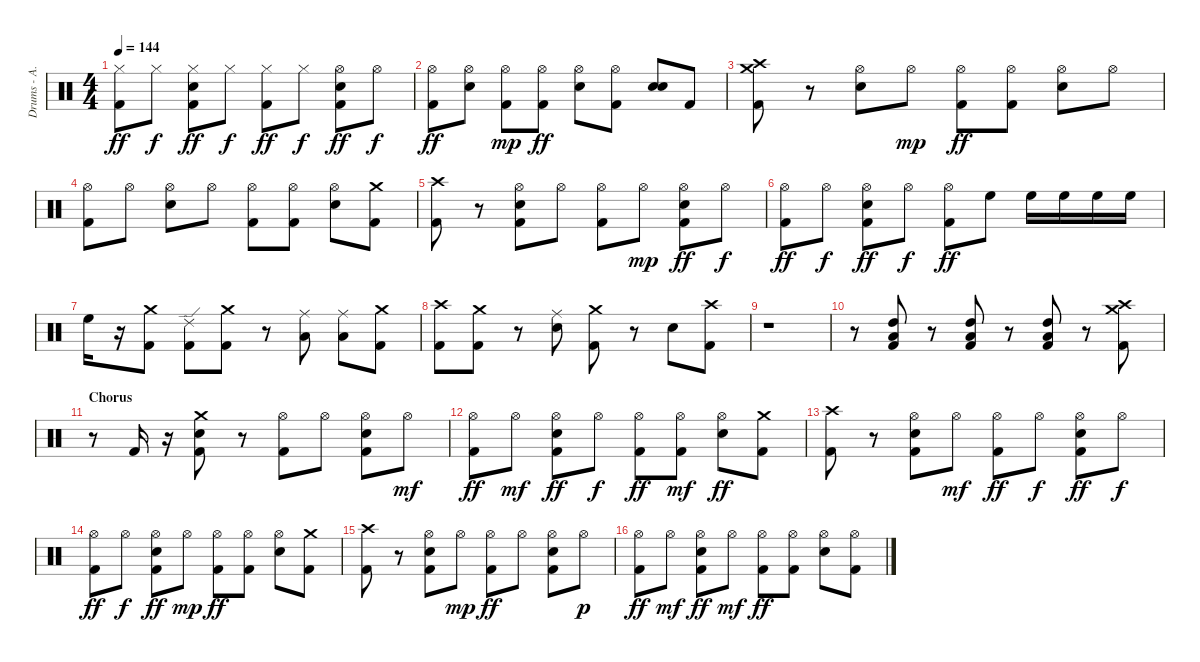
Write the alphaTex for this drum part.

\track ("Drums - A. Van Halen" "Drums - A.") {instrument percussion}
\staff {score}
\articulation defaults
\ts (4 4)
\tempo 144
\clef neutral
\ks c
("Kick (hit) 2" "Hi-Hat (closed)").8{dy ff} "Hi-Hat (closed)".8{dy f} ("Kick (hit) 2" "Hi-Hat (closed)" "Electric Snare (hit)").8{dy ff} "Hi-Hat (closed)".8{dy f} ("Kick (hit) 2" "Hi-Hat (closed)").8{dy ff} "Hi-Hat (closed)".8{dy f} ("Kick (hit) 2" "Hi-Hat (open)" "Electric Snare (hit)").8{dy ff} "Hi-Hat (open)".8{dy f} |
("Kick (hit) 2" "Hi-Hat (open)").8{dy ff} ("Electric Snare (hit)" "Hi-Hat (open)").8 ("Kick (hit) 2" "Hi-Hat (open)").8{dy mp} ("Hi-Hat (open)" "Kick (hit) 2").8{dy ff} ("Electric Snare (hit)" "Hi-Hat (open)").8 ("Kick (hit) 2" "Hi-Hat (open)").8 ("Electric Snare (hit)" "Electric Snare (hit)").8 "Kick (hit) 2".8 |
("Crash medium (hit)" "Kick (hit) 2" "Crash high (hit)").8 r.8 ("Electric Snare (hit)" "Hi-Hat (open)").8 "Hi-Hat (open)".8{dy mp} ("Hi-Hat (open)" "Kick (hit) 2").8{dy ff} ("Hi-Hat (open)" "Kick (hit) 2").8 ("Electric Snare (hit)" "Hi-Hat (open)").8 "Hi-Hat (open)".8 |
("Hi-Hat (open)" "Kick (hit) 2").8 "Hi-Hat (open)".8 ("Electric Snare (hit)" "Hi-Hat (open)").8 "Hi-Hat (open)".8 ("Kick (hit) 2" "Hi-Hat (open)").8 ("Hi-Hat (open)" "Kick (hit) 2").8 ("Electric Snare (hit)" "Hi-Hat (open)").8 ("Kick (hit) 2" "Crash medium (hit)").8 |
("Crash high (hit)" "Kick (hit) 2").8 r.8 ("Hi-Hat (open)" "Electric Snare (hit)" "Kick (hit) 2").8 "Hi-Hat (open)".8 ("Hi-Hat (open)" "Kick (hit) 2").8 "Hi-Hat (open)".8{dy mp} ("Electric Snare (hit)" "Hi-Hat (open)" "Kick (hit) 2").8{dy ff} "Hi-Hat (open)".8{dy f} |
("Kick (hit) 2" "Hi-Hat (open)").8{dy ff} "Hi-Hat (open)".8{dy f} ("Electric Snare (hit)" "Hi-Hat (open)" "Kick (hit) 2").8{dy ff} "Hi-Hat (open)".8{dy f} ("Hi-Hat (open)" "Kick (hit) 2").8{dy ff} "High Floor Tom (hit)".8 "High Floor Tom (hit)".16 "High Floor Tom (hit)".16 "High Floor Tom (hit)".16 "High Floor Tom (hit)".16 |
"High Floor Tom (hit)".16 r.16 ("Kick (hit) 2" "Crash medium (hit)").8 ("Ride (edge) 2" "Kick (hit) 2").8 ("Crash medium (hit)" "Kick (hit) 2").8 r.8 ("Ride (middle)" "Low Floor Tom (hit)").8 ("Ride (middle)" "Low Floor Tom (hit)").8 ("Kick (hit) 2" "Crash medium (hit)").8 |
("Crash high (hit)" "Kick (hit) 2").8 ("Crash medium (hit)" "Kick (hit) 2").8 r.8 ("Ride (middle)" "Electric Snare (hit)").8 ("Crash medium (hit)" "Kick (hit) 2").8 r.8 "Electric Snare (hit)".8 ("Kick (hit) 2" "Crash high (hit)").8 |
r.1 |
r.8 ("High Tom (hit)" "Low Floor Tom (hit)" "Kick (hit) 2").8 r.8 ("High Tom (hit)" "Low Floor Tom (hit)" "Kick (hit) 2").8 r.8 ("Kick (hit) 2" "High Tom (hit)" "Low Floor Tom (hit)").8 r.8 ("Kick (hit) 2" "Crash high (hit)" "Crash medium (hit)").8 |
\section ("" "Chorus")
r.8 "Kick (hit) 2".16 r.16 ("Crash medium (hit)" "Electric Snare (hit)" "Kick (hit) 2").8 r.8 ("Hi-Hat (open)" "Kick (hit) 2").8 "Hi-Hat (open)".8 ("Electric Snare (hit)" "Hi-Hat (open)" "Kick (hit) 2").8 "Hi-Hat (open)".8{dy mf} |
("Hi-Hat (open)" "Kick (hit) 2").8{dy ff} "Hi-Hat (open)".8{dy mf} ("Kick (hit) 2" "Electric Snare (hit)" "Hi-Hat (open)").8{dy ff} "Hi-Hat (open)".8{dy f} ("Kick (hit) 2" "Hi-Hat (open)").8{dy ff} ("Kick (hit) 2" "Hi-Hat (open)").8{dy mf} ("Electric Snare (hit)" "Hi-Hat (open)").8{dy ff} ("Kick (hit) 2" "Crash medium (hit)").8 |
("Kick (hit) 2" "Crash high (hit)").8 r.8 ("Electric Snare (hit)" "Hi-Hat (open)" "Kick (hit) 2").8 "Hi-Hat (open)".8{dy mf} ("Kick (hit) 2" "Hi-Hat (open)").8{dy ff} "Hi-Hat (open)".8{dy f} ("Electric Snare (hit)" "Kick (hit) 2" "Hi-Hat (open)").8{dy ff} "Hi-Hat (open)".8{dy f} |
("Kick (hit) 2" "Hi-Hat (open)").8{dy ff} "Hi-Hat (open)".8{dy f} ("Hi-Hat (open)" "Kick (hit) 2" "Electric Snare (hit)").8{dy ff} "Hi-Hat (open)".8{dy mp} ("Kick (hit) 2" "Hi-Hat (open)").8{dy ff} ("Hi-Hat (open)" "Kick (hit) 2").8 ("Hi-Hat (open)" "Electric Snare (hit)").8 ("Kick (hit) 2" "Crash medium (hit)").8 |
("Kick (hit) 2" "Crash high (hit)").8 r.8 ("Hi-Hat (open)" "Electric Snare (hit)" "Kick (hit) 2").8 "Hi-Hat (open)".8{dy mp} ("Hi-Hat (open)" "Kick (hit) 2").8{dy ff} "Hi-Hat (open)".8 ("Hi-Hat (open)" "Electric Snare (hit)" "Kick (hit) 2").8 "Hi-Hat (open)".8{dy p} |
("Hi-Hat (open)" "Kick (hit) 2").8{dy ff} "Hi-Hat (open)".8{dy mf} ("Kick (hit) 2" "Electric Snare (hit)" "Hi-Hat (open)").8{dy ff} "Hi-Hat (open)".8{dy mf} ("Kick (hit) 2" "Hi-Hat (open)").8{dy ff} ("Hi-Hat (open)" "Kick (hit) 2").8 ("Electric Snare (hit)" "Hi-Hat (open)").8 ("Kick (hit) 2" "Hi-Hat (open)").8
